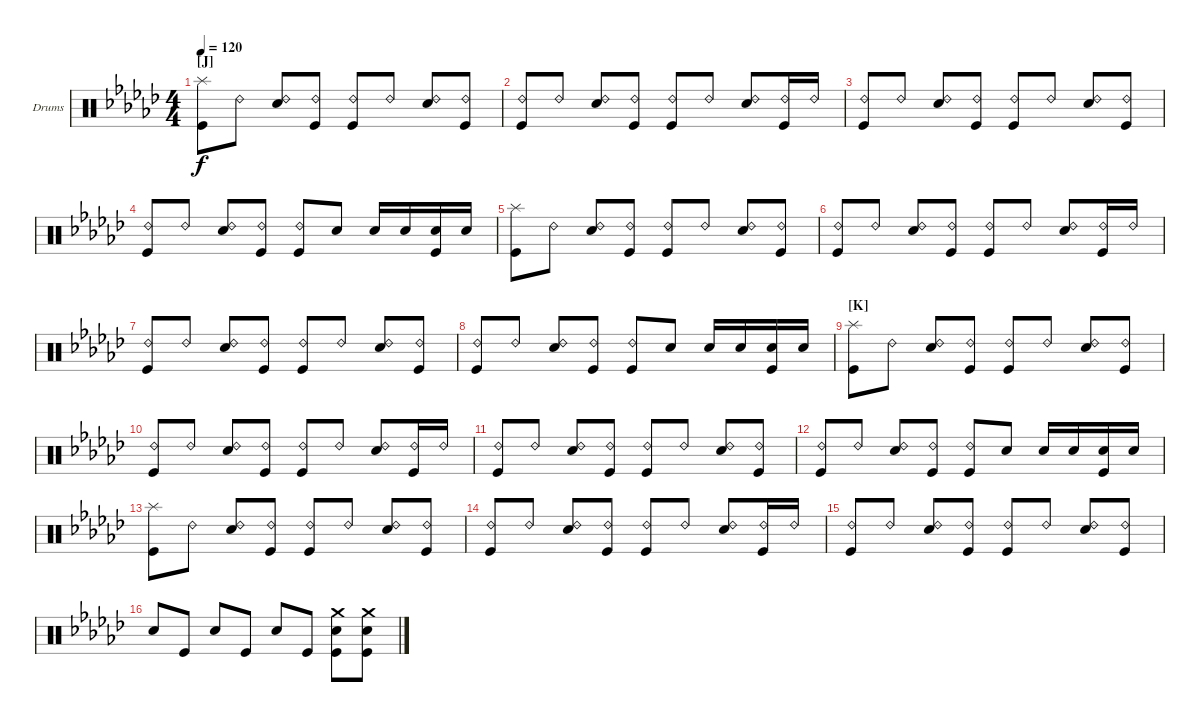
\defaultSystemsLayout 4
\bracketExtendMode groupsimilarinstruments
\firstSystemTrackNameOrientation horizontal
\otherSystemsTrackNameOrientation horizontal
\track ("Drumkit" "Drums") {instrument percussion}
\staff {score}
\articulation defaults
\ts (4 4)
\section ("J" "")
\tempo 120
\clef neutral
\ks ebminor
("Kick (hit)" "Splash (hit)").8{dy f} "Ride (bell) 2".8 ("Ride (bell) 2" "Snare (hit) 2").8 ("Kick (hit)" "Ride (bell) 2").8 ("Ride (bell) 2" "Kick (hit)").8 "Ride (bell) 2".8 ("Ride (bell) 2" "Snare (hit) 2").8 ("Ride (bell) 2" "Kick (hit)").8 |
("Kick (hit)" "Ride (bell) 2").8 "Ride (bell) 2".8 ("Ride (bell) 2" "Snare (hit) 2").8 ("Kick (hit)" "Ride (bell) 2").8 ("Ride (bell) 2" "Kick (hit)").8 "Ride (bell) 2".8 ("Ride (bell) 2" "Snare (hit) 2").8 ("Ride (bell) 2" "Kick (hit)").16 "Ride (bell) 2".16 |
("Kick (hit)" "Ride (bell) 2").8 "Ride (bell) 2".8 ("Ride (bell) 2" "Snare (hit) 2").8 ("Kick (hit)" "Ride (bell) 2").8 ("Ride (bell) 2" "Kick (hit)").8 "Ride (bell) 2".8 ("Ride (bell) 2" "Snare (hit) 2").8 ("Ride (bell) 2" "Kick (hit)").8 |
("Kick (hit)" "Ride (bell) 2").8 "Ride (bell) 2".8 ("Ride (bell) 2" "Snare (hit) 2").8 ("Ride (bell) 2" "Kick (hit)").8 ("Ride (bell) 2" "Kick (hit)").8 "Snare (hit) 2".8 "Snare (hit) 2".16 "Snare (hit) 2".16 ("Snare (hit) 2" "Kick (hit)").16 "Snare (hit) 2".16 |
("Kick (hit)" "Splash (hit)").8 "Ride (bell) 2".8 ("Ride (bell) 2" "Snare (hit) 2").8 ("Kick (hit)" "Ride (bell) 2").8 ("Ride (bell) 2" "Kick (hit)").8 "Ride (bell) 2".8 ("Ride (bell) 2" "Snare (hit) 2").8 ("Ride (bell) 2" "Kick (hit)").8 |
("Kick (hit)" "Ride (bell) 2").8 "Ride (bell) 2".8 ("Ride (bell) 2" "Snare (hit) 2").8 ("Kick (hit)" "Ride (bell) 2").8 ("Ride (bell) 2" "Kick (hit)").8 "Ride (bell) 2".8 ("Ride (bell) 2" "Snare (hit) 2").8 ("Ride (bell) 2" "Kick (hit)").16 "Ride (bell) 2".16 |
("Kick (hit)" "Ride (bell) 2").8 "Ride (bell) 2".8 ("Ride (bell) 2" "Snare (hit) 2").8 ("Kick (hit)" "Ride (bell) 2").8 ("Ride (bell) 2" "Kick (hit)").8 "Ride (bell) 2".8 ("Ride (bell) 2" "Snare (hit) 2").8 ("Ride (bell) 2" "Kick (hit)").8 |
("Kick (hit)" "Ride (bell) 2").8 "Ride (bell) 2".8 ("Ride (bell) 2" "Snare (hit) 2").8 ("Ride (bell) 2" "Kick (hit)").8 ("Ride (bell) 2" "Kick (hit)").8 "Snare (hit) 2".8 "Snare (hit) 2".16 "Snare (hit) 2".16 ("Snare (hit) 2" "Kick (hit)").16 "Snare (hit) 2".16 |
\section ("K" "")
("Kick (hit)" "Splash (hit)").8 "Ride (bell) 2".8 ("Ride (bell) 2" "Snare (hit) 2").8 ("Kick (hit)" "Ride (bell) 2").8 ("Ride (bell) 2" "Kick (hit)").8 "Ride (bell) 2".8 ("Ride (bell) 2" "Snare (hit) 2").8 ("Ride (bell) 2" "Kick (hit)").8 |
("Kick (hit)" "Ride (bell) 2").8 "Ride (bell) 2".8 ("Ride (bell) 2" "Snare (hit) 2").8 ("Kick (hit)" "Ride (bell) 2").8 ("Ride (bell) 2" "Kick (hit)").8 "Ride (bell) 2".8 ("Ride (bell) 2" "Snare (hit) 2").8 ("Ride (bell) 2" "Kick (hit)").16 "Ride (bell) 2".16 |
("Kick (hit)" "Ride (bell) 2").8 "Ride (bell) 2".8 ("Ride (bell) 2" "Snare (hit) 2").8 ("Kick (hit)" "Ride (bell) 2").8 ("Ride (bell) 2" "Kick (hit)").8 "Ride (bell) 2".8 ("Ride (bell) 2" "Snare (hit) 2").8 ("Ride (bell) 2" "Kick (hit)").8 |
("Kick (hit)" "Ride (bell) 2").8 "Ride (bell) 2".8 ("Ride (bell) 2" "Snare (hit) 2").8 ("Ride (bell) 2" "Kick (hit)").8 ("Ride (bell) 2" "Kick (hit)").8 "Snare (hit) 2".8 "Snare (hit) 2".16 "Snare (hit) 2".16 ("Snare (hit) 2" "Kick (hit)").16 "Snare (hit) 2".16 |
("Kick (hit)" "Splash (hit)").8 "Ride (bell) 2".8 ("Ride (bell) 2" "Snare (hit) 2").8 ("Kick (hit)" "Ride (bell) 2").8 ("Ride (bell) 2" "Kick (hit)").8 "Ride (bell) 2".8 ("Ride (bell) 2" "Snare (hit) 2").8 ("Ride (bell) 2" "Kick (hit)").8 |
("Kick (hit)" "Ride (bell) 2").8 "Ride (bell) 2".8 ("Ride (bell) 2" "Snare (hit) 2").8 ("Kick (hit)" "Ride (bell) 2").8 ("Ride (bell) 2" "Kick (hit)").8 "Ride (bell) 2".8 ("Ride (bell) 2" "Snare (hit) 2").8 ("Ride (bell) 2" "Kick (hit)").16 "Ride (bell) 2".16 |
("Kick (hit)" "Ride (bell) 2").8 "Ride (bell) 2".8 ("Ride (bell) 2" "Snare (hit) 2").8 ("Kick (hit)" "Ride (bell) 2").8 ("Ride (bell) 2" "Kick (hit)").8 "Ride (bell) 2".8 ("Ride (bell) 2" "Snare (hit) 2").8 ("Ride (bell) 2" "Kick (hit)").8 |
"Snare (hit) 2".8 "Kick (hit)".8 "Snare (hit) 2".8 "Kick (hit)".8 "Snare (hit) 2".8 "Kick (hit)".8 ("Kick (hit)" "Snare (hit) 2" "Crash medium (hit)").8 ("Kick (hit)" "Snare (hit) 2" "Crash medium (hit)").8
